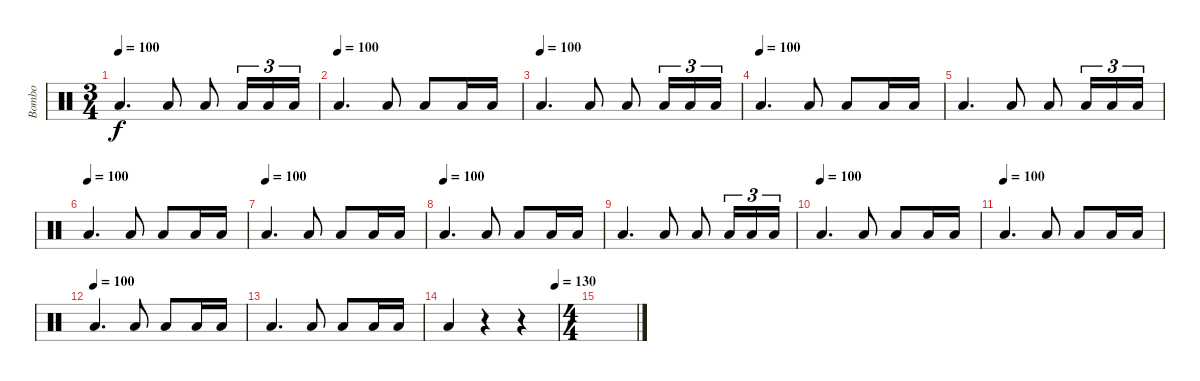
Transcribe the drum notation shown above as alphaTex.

\track ("Bombo" "Bombo") {instrument percussion}
\staff {score}
\articulation defaults
\ts (3 4)
\tempo 100
\clef neutral
\ks c "Low Floor Tom (hit)".4{d dy f} "Low Floor Tom (hit)".8 "Low Floor Tom (hit)".8 "Low Floor Tom (hit)".16{tu (3 2)} "Low Floor Tom (hit)".16{tu (3 2)} "Low Floor Tom (hit)".16{tu (3 2)}
|
\tempo (100)
"Low Floor Tom (hit)".4{d} "Low Floor Tom (hit)".8 "Low Floor Tom (hit)".8 "Low Floor Tom (hit)".16 "Low Floor Tom (hit)".16 |
\tempo (100)
"Low Floor Tom (hit)".4{d} "Low Floor Tom (hit)".8 "Low Floor Tom (hit)".8 "Low Floor Tom (hit)".16{tu (3 2)} "Low Floor Tom (hit)".16{tu (3 2)} "Low Floor Tom (hit)".16{tu (3 2)} |
\tempo (100)
"Low Floor Tom (hit)".4{d} "Low Floor Tom (hit)".8 "Low Floor Tom (hit)".8 "Low Floor Tom (hit)".16 "Low Floor Tom (hit)".16 |
"Low Floor Tom (hit)".4{d} "Low Floor Tom (hit)".8 "Low Floor Tom (hit)".8 "Low Floor Tom (hit)".16{tu (3 2)} "Low Floor Tom (hit)".16{tu (3 2)} "Low Floor Tom (hit)".16{tu (3 2)} |
\tempo (100)
"Low Floor Tom (hit)".4{d} "Low Floor Tom (hit)".8 "Low Floor Tom (hit)".8 "Low Floor Tom (hit)".16 "Low Floor Tom (hit)".16 |
\tempo (100)
"Low Floor Tom (hit)".4{d} "Low Floor Tom (hit)".8 "Low Floor Tom (hit)".8 "Low Floor Tom (hit)".16 "Low Floor Tom (hit)".16 |
\tempo (100)
"Low Floor Tom (hit)".4{d} "Low Floor Tom (hit)".8 "Low Floor Tom (hit)".8 "Low Floor Tom (hit)".16 "Low Floor Tom (hit)".16 |
"Low Floor Tom (hit)".4{d} "Low Floor Tom (hit)".8 "Low Floor Tom (hit)".8 "Low Floor Tom (hit)".16{tu (3 2)} "Low Floor Tom (hit)".16{tu (3 2)} "Low Floor Tom (hit)".16{tu (3 2)} |
\tempo (100)
"Low Floor Tom (hit)".4{d} "Low Floor Tom (hit)".8 "Low Floor Tom (hit)".8 "Low Floor Tom (hit)".16 "Low Floor Tom (hit)".16 |
\tempo (100)
"Low Floor Tom (hit)".4{d} "Low Floor Tom (hit)".8 "Low Floor Tom (hit)".8 "Low Floor Tom (hit)".16 "Low Floor Tom (hit)".16 |
\tempo (100)
"Low Floor Tom (hit)".4{d} "Low Floor Tom (hit)".8 "Low Floor Tom (hit)".8 "Low Floor Tom (hit)".16 "Low Floor Tom (hit)".16 |
"Low Floor Tom (hit)".4{d} "Low Floor Tom (hit)".8 "Low Floor Tom (hit)".8 "Low Floor Tom (hit)".16 "Low Floor Tom (hit)".16 |
\tempo (130 0.9791666666666666)
"Low Floor Tom (hit)".4 r.4 r.4 |
\ts (4 4)
